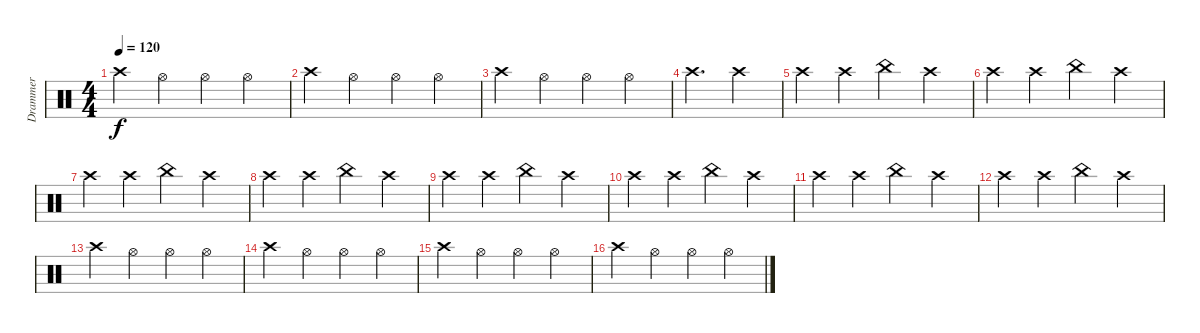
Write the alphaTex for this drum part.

\track ("Drammer" "Drammer") {instrument percussion}
\staff {score}
\articulation defaults
\ts (4 4)
\tempo 120
\clef neutral
\ks c "Crash high (hit)".4{dy f} "Hi-Hat (open)".4 "Hi-Hat (open)".4 "Hi-Hat (open)".4
|
"Crash high (hit)".4 "Hi-Hat (open)".4 "Hi-Hat (open)".4 "Hi-Hat (open)".4 |
"Crash high (hit)".4 "Hi-Hat (open)".4 "Hi-Hat (open)".4 "Hi-Hat (open)".4 |
"Crash high (hit)".4{d} "Crash high (hit)".4 |
"Crash high (hit)".4 "Crash high (hit)".4 "China (hit)".4 "Crash high (hit)".4 |
"Crash high (hit)".4 "Crash high (hit)".4 "China (hit)".4 "Crash high (hit)".4 |
"Crash high (hit)".4 "Crash high (hit)".4 "China (hit)".4 "Crash high (hit)".4 |
"Crash high (hit)".4 "Crash high (hit)".4 "China (hit)".4 "Crash high (hit)".4 |
"Crash high (hit)".4 "Crash high (hit)".4 "China (hit)".4 "Crash high (hit)".4 |
"Crash high (hit)".4 "Crash high (hit)".4 "China (hit)".4 "Crash high (hit)".4 |
"Crash high (hit)".4 "Crash high (hit)".4 "China (hit)".4 "Crash high (hit)".4 |
"Crash high (hit)".4 "Crash high (hit)".4 "China (hit)".4 "Crash high (hit)".4 |
"Crash high (hit)".4 "Hi-Hat (open)".4 "Hi-Hat (open)".4 "Hi-Hat (open)".4 |
"Crash high (hit)".4 "Hi-Hat (open)".4 "Hi-Hat (open)".4 "Hi-Hat (open)".4 |
"Crash high (hit)".4 "Hi-Hat (open)".4 "Hi-Hat (open)".4 "Hi-Hat (open)".4 |
"Crash high (hit)".4 "Hi-Hat (open)".4 "Hi-Hat (open)".4 "Hi-Hat (open)".4
